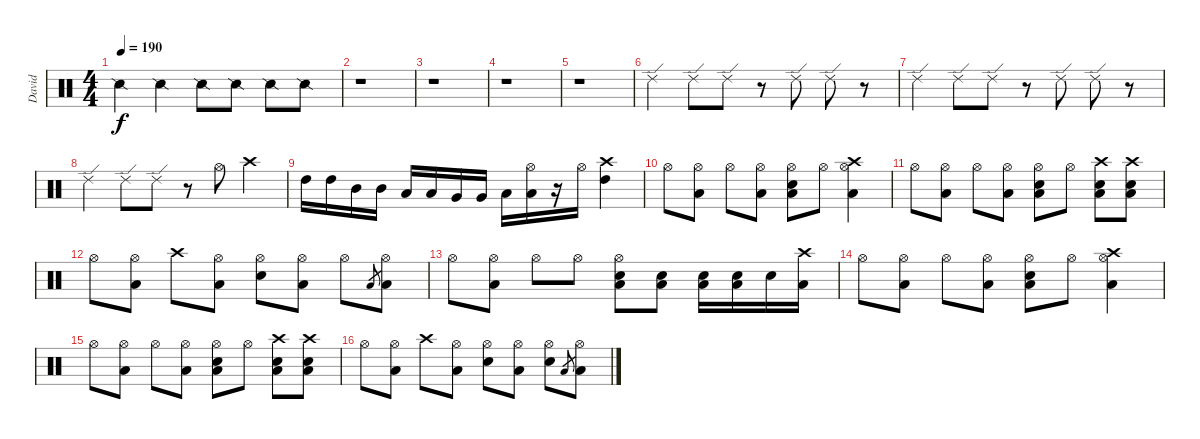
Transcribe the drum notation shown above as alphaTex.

\track ("David" "David") {instrument percussion}
\staff {score}
\articulation defaults
\ts (4 4)
\tempo 190
\clef neutral
\ks c "Snare (side stick) 2".4{dy f} "Snare (side stick) 2".4 "Snare (side stick) 2".8 "Snare (side stick) 2".8 "Snare (side stick) 2".8 "Snare (side stick) 2".8
|
r.1 |
r.1 |
r.1 |
r.1 |
"Ride (edge) 2".4 "Ride (edge) 2".8 "Ride (edge) 2".8 r.8 "Ride (edge) 2".8 "Ride (edge) 2".8 r.8 |
"Ride (edge) 2".4 "Ride (edge) 2".8 "Ride (edge) 2".8 r.8 "Ride (edge) 2".8 "Ride (edge) 2".8 r.8 |
"Ride (edge) 2".4 "Ride (edge) 2".8 "Ride (edge) 2".8 r.8 "Hi-Hat (open)".8 "Crash high (hit)".4 |
"High Tom (hit)".16 "High Tom (hit)".16 "Mid Tom (hit)".16 "Mid Tom (hit)".16 "Low Tom (hit)".16 "Low Tom (hit)".16 "Very Low Tom (hit)".16 "Very Low Tom (hit)".16 "Low Floor Tom (hit)".16 ("Hi-Hat (open)" "Low Floor Tom (hit)").16 r.16 "Hi-Hat (open)".16 ("Crash high (hit)" "High Tom (hit)").4 |
"Hi-Hat (open)".8 ("Hi-Hat (open)" "Low Tom (hit)").8 "Hi-Hat (open)".8 ("Hi-Hat (open)" "Low Tom (hit)").8 ("Hi-Hat (open)" "Electric Snare (hit)" "Low Tom (hit)").8 "Hi-Hat (open)".8 ("Crash high (hit)" "Hi-Hat (open)" "Low Tom (hit)").4 |
"Hi-Hat (open)".8 ("Hi-Hat (open)" "Low Tom (hit)").8 "Hi-Hat (open)".8 ("Hi-Hat (open)" "Low Tom (hit)").8 ("Hi-Hat (open)" "Electric Snare (hit)" "Low Tom (hit)").8 "Hi-Hat (open)".8 ("Crash high (hit)" "Electric Snare (hit)" "Low Tom (hit)").8 ("Crash high (hit)" "Electric Snare (hit)" "Low Tom (hit)").8 |
"Hi-Hat (open)".8 ("Hi-Hat (open)" "Low Tom (hit)").8 "Crash high (hit)".8 ("Hi-Hat (open)" "Low Tom (hit)").8 ("Hi-Hat (open)" "Electric Snare (hit)").8 ("Hi-Hat (open)" "Low Tom (hit)").8 "Hi-Hat (open)".8 "Low Tom (hit)".8{gr} ("Hi-Hat (open)" "Low Tom (hit)").8 |
"Hi-Hat (open)".8 ("Hi-Hat (open)" "Low Tom (hit)").8 "Hi-Hat (open)".8 "Hi-Hat (open)".8 ("Hi-Hat (open)" "Electric Snare (hit)" "Low Tom (hit)").8 ("Electric Snare (hit)" "Low Tom (hit)").8 ("Electric Snare (hit)" "Low Tom (hit)").16 ("Electric Snare (hit)" "Low Tom (hit)").16 "Electric Snare (hit)".16 ("Crash high (hit)" "Low Tom (hit)").16 |
"Hi-Hat (open)".8 ("Hi-Hat (open)" "Low Tom (hit)").8 "Hi-Hat (open)".8 ("Hi-Hat (open)" "Low Tom (hit)").8 ("Hi-Hat (open)" "Electric Snare (hit)" "Low Tom (hit)").8 "Hi-Hat (open)".8 ("Crash high (hit)" "Hi-Hat (open)" "Low Tom (hit)").4 |
"Hi-Hat (open)".8 ("Hi-Hat (open)" "Low Tom (hit)").8 "Hi-Hat (open)".8 ("Hi-Hat (open)" "Low Tom (hit)").8 ("Hi-Hat (open)" "Electric Snare (hit)" "Low Tom (hit)").8 "Hi-Hat (open)".8 ("Crash high (hit)" "Electric Snare (hit)" "Low Tom (hit)").8 ("Crash high (hit)" "Electric Snare (hit)" "Low Tom (hit)").8 |
"Hi-Hat (open)".8 ("Hi-Hat (open)" "Low Tom (hit)").8 "Crash high (hit)".8 ("Hi-Hat (open)" "Low Tom (hit)").8 ("Hi-Hat (open)" "Electric Snare (hit)").8 ("Hi-Hat (open)" "Low Tom (hit)").8 ("Hi-Hat (open)" "Electric Snare (hit)").8 "Low Tom (hit)".8{gr} ("Hi-Hat (open)" "Low Tom (hit)").8
